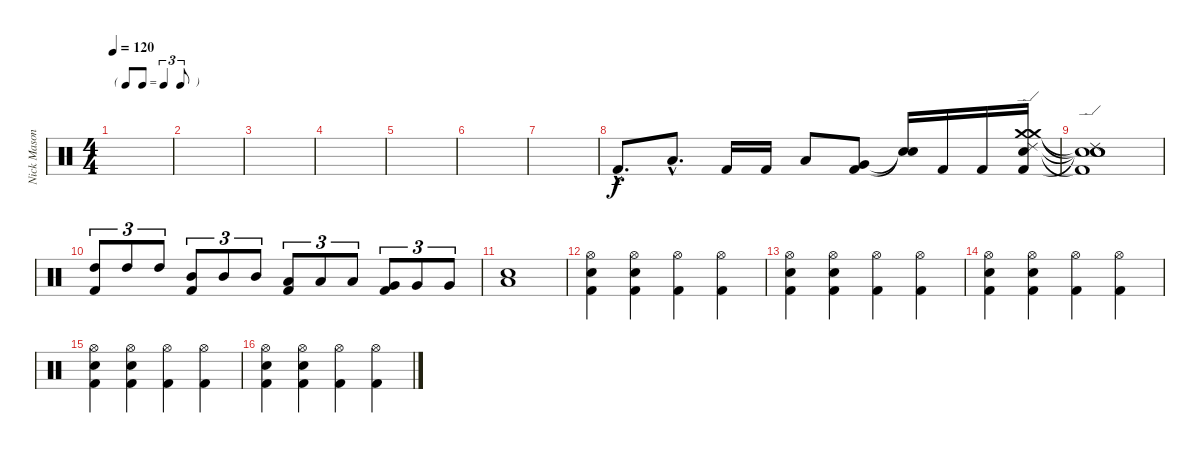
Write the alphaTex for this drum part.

\track ("Nick Mason" "Nick Mason") {instrument percussion}
\staff {score}
\articulation defaults
\ts (4 4)
\tf triplet8th
\tempo 120
\clef neutral
\ks c
|
|
|
|
|
|
|
"Kick (hit) 2"{hac}.8{d} "Low Tom (hit)"{hac}.8{d} "Kick (hit) 2".16 "Kick (hit) 2".16 "Low Tom (hit)".8 ("Very Low Tom (hit)" "Kick (hit) 2").8 ("Snare (hit)"{t} "Snare (hit)"{t}).16 "Kick (hit) 2".16 "Kick (hit) 2".16 ("Crash medium (hit)" "Crash medium (hit)" "Electric Snare (hit)" "Kick (hit) 2" "Ride (edge) 2").16 |
("Ride (edge) 2"{t} "Electric Snare (hit)"{t} "Kick (hit) 2"{t} "Snare (hit)"{t} "Snare (hit)"{t}).1 |
("High Tom (hit)" "Kick (hit) 2").8{tu (3 2)} "High Tom (hit)".8{tu (3 2)} "High Tom (hit)".8{tu (3 2)} ("Mid Tom (hit)" "Kick (hit) 2").8{tu (3 2)} "Mid Tom (hit)".8{tu (3 2)} "Mid Tom (hit)".8{tu (3 2)} ("Low Tom (hit)" "Kick (hit) 2").8{tu (3 2)} "Low Tom (hit)".8{tu (3 2)} "Low Tom (hit)".8{tu (3 2)} ("Very Low Tom (hit)" "Kick (hit) 2").8{tu (3 2)} "Very Low Tom (hit)".8{tu (3 2)} "Very Low Tom (hit)".8{tu (3 2)} |
("Low Floor Tom (hit)" "Electric Snare (hit)").1 |
("Hi-Hat (open)" "Snare (hit) 2" "Kick (hit) 2").4 ("Hi-Hat (open)" "Snare (hit) 2" "Kick (hit) 2").4 ("Hi-Hat (open)" "Kick (hit) 2").4 ("Hi-Hat (open)" "Kick (hit) 2").4 |
("Hi-Hat (open)" "Snare (hit) 2" "Kick (hit) 2").4 ("Hi-Hat (open)" "Snare (hit) 2" "Kick (hit) 2").4 ("Hi-Hat (open)" "Kick (hit) 2").4 ("Hi-Hat (open)" "Kick (hit) 2").4 |
("Hi-Hat (open)" "Snare (hit) 2" "Kick (hit) 2").4 ("Hi-Hat (open)" "Snare (hit) 2" "Kick (hit) 2").4 ("Hi-Hat (open)" "Kick (hit) 2").4 ("Hi-Hat (open)" "Kick (hit) 2").4 |
("Hi-Hat (open)" "Snare (hit) 2" "Kick (hit) 2").4 ("Hi-Hat (open)" "Snare (hit) 2" "Kick (hit) 2").4 ("Hi-Hat (open)" "Kick (hit) 2").4 ("Hi-Hat (open)" "Kick (hit) 2").4 |
("Hi-Hat (open)" "Snare (hit) 2" "Kick (hit) 2").4 ("Hi-Hat (open)" "Snare (hit) 2" "Kick (hit) 2").4 ("Hi-Hat (open)" "Kick (hit) 2").4 ("Hi-Hat (open)" "Kick (hit) 2").4
